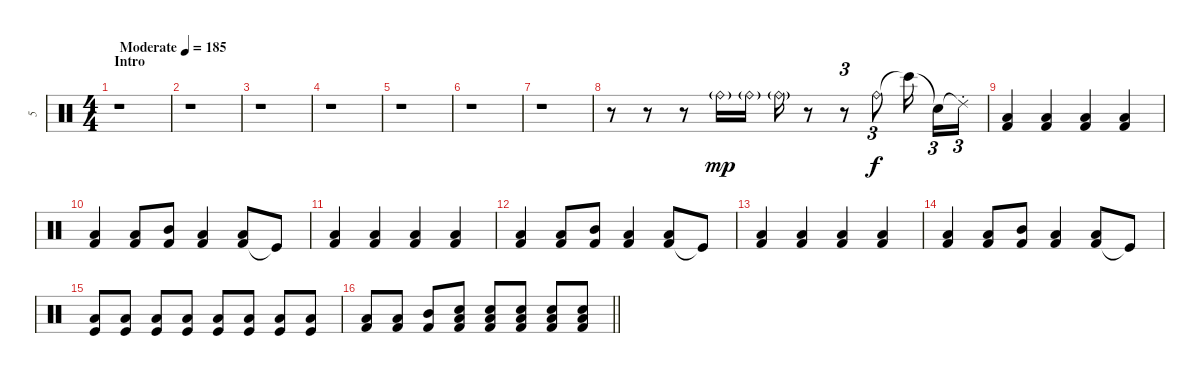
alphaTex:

\track ("5" "5") {instrument percussion}
\staff {score}
\articulation defaults
\ts (4 4)
\section ("" "Intro")
\tempo (185 "Moderate")
\clef neutral
\ks c
r.1{dy mp} |
r.1 |
r.1 |
r.1 |
r.1 |
r.1 |
r.1 |
r.8 r.8 r.8 "Ride (bell)"{g}.16 "Ride (bell)"{g}.16 "Ride (bell)"{g}.16 r.8 r.8{tu (3 2)} "Ride (bell)".8{tu (3 2) dy f} "Bongo High (hit)"{t}.16{beam splitsecondary} "Snare (hit)"{t}.16{tu (3 2)} "Ride (choke) 2"{t}.16{tu (3 2)} |
("Kick (hit) 2" "Low Tom (hit)").4 ("Kick (hit) 2" "Low Tom (hit)").4 ("Kick (hit) 2" "Low Tom (hit)").4 ("Kick (hit) 2" "Low Tom (hit)").4 |
("Kick (hit) 2" "Low Tom (hit)").4 ("Kick (hit) 2" "Low Tom (hit)").8 ("Kick (hit) 2" "Mid Tom (hit)").8 ("Kick (hit) 2" "Low Tom (hit)").4 ("Kick (hit) 2" "Low Tom (hit)").8 "Kick (hit)"{t}.8 |
("Kick (hit) 2" "Low Tom (hit)").4 ("Kick (hit) 2" "Low Tom (hit)").4 ("Kick (hit) 2" "Low Tom (hit)").4 ("Kick (hit) 2" "Low Tom (hit)").4 |
("Kick (hit) 2" "Low Tom (hit)").4 ("Kick (hit) 2" "Low Tom (hit)").8 ("Kick (hit) 2" "Mid Tom (hit)").8 ("Kick (hit) 2" "Low Tom (hit)").4 ("Kick (hit) 2" "Low Tom (hit)").8 "Kick (hit)"{t}.8 |
("Kick (hit) 2" "Low Tom (hit)").4 ("Kick (hit) 2" "Low Tom (hit)").4 ("Kick (hit) 2" "Low Tom (hit)").4 ("Kick (hit) 2" "Low Tom (hit)").4 |
("Kick (hit) 2" "Low Tom (hit)").4 ("Kick (hit) 2" "Low Tom (hit)").8 ("Kick (hit) 2" "Mid Tom (hit)").8 ("Kick (hit) 2" "Low Tom (hit)").4 ("Kick (hit) 2" "Low Tom (hit)").8 "Kick (hit)"{t}.8 |
("Kick (hit)" "Low Tom (hit)").8 ("Kick (hit)" "Low Tom (hit)").8 ("Kick (hit)" "Low Tom (hit)").8 ("Kick (hit)" "Low Tom (hit)").8 ("Kick (hit)" "Low Tom (hit)").8 ("Kick (hit)" "Low Tom (hit)").8 ("Kick (hit)" "Low Tom (hit)").8 ("Kick (hit)" "Low Tom (hit)").8 |
\barLineRight lightlight
("Kick (hit) 2" "Low Tom (hit)").8 ("Kick (hit) 2" "Low Tom (hit)").8 ("Kick (hit) 2" "Mid Tom (hit)").8 ("Kick (hit) 2" "Low Tom (hit)" "Electric Snare (hit)").8 ("Kick (hit) 2" "Low Tom (hit)" "Electric Snare (hit)").8 ("Kick (hit) 2" "Low Tom (hit)" "Electric Snare (hit)").8 ("Kick (hit) 2" "Low Tom (hit)" "Electric Snare (hit)").8 ("Kick (hit) 2" "Low Tom (hit)" "Electric Snare (hit)").8
